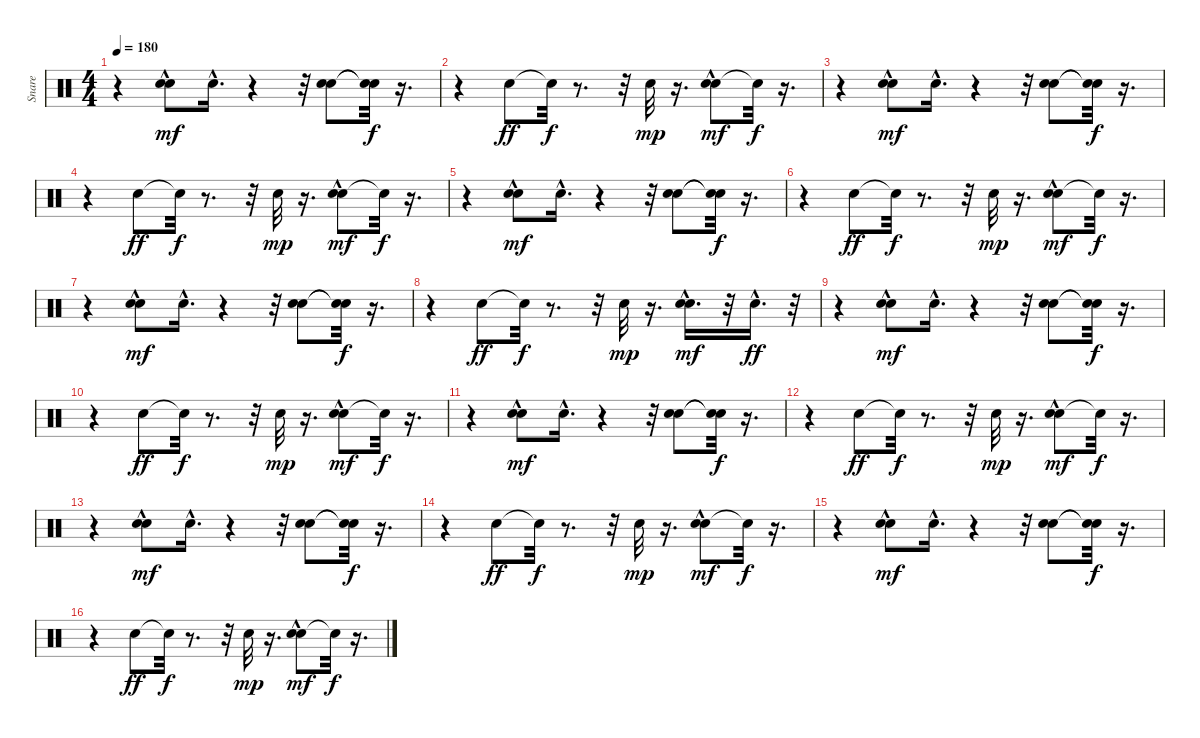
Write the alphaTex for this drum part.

\track ("Snare" "Snare") {instrument percussion}
\staff {score}
\articulation defaults
\ts (4 4)
\tempo 180
\clef neutral
\ks c
r.4{dy f} ("Snare (hit) 2" "Hand Clap (hit)"{hac}).8{dy mf} "Hand Clap (hit)"{hac}.16{d} r.4 r.32 ("Snare (hit) 2" "Hand Clap (hit)").8 ("Snare (hit)"{t} "Snare (hit)"{t}).32{dy f} r.16{d} |
r.4 "Snare (hit) 2".8{dy ff} "Snare (hit)"{t}.32{dy f} r.8{d} r.32 "Hand Clap (hit)".32{dy mp} r.16{d} ("Snare (hit) 2" "Hand Clap (hit)"{hac}).8{dy mf} "Snare (hit)"{t}.32{dy f} r.16{d} |
r.4 ("Snare (hit) 2" "Hand Clap (hit)"{hac}).8{dy mf} "Hand Clap (hit)"{hac}.16{d} r.4 r.32 ("Snare (hit) 2" "Hand Clap (hit)").8 ("Snare (hit)"{t} "Snare (hit)"{t}).32{dy f} r.16{d} |
r.4 "Snare (hit) 2".8{dy ff} "Snare (hit)"{t}.32{dy f} r.8{d} r.32 "Hand Clap (hit)".32{dy mp} r.16{d} ("Snare (hit) 2" "Hand Clap (hit)"{hac}).8{dy mf} "Snare (hit)"{t}.32{dy f} r.16{d} |
r.4 ("Snare (hit) 2" "Hand Clap (hit)"{hac}).8{dy mf} "Hand Clap (hit)"{hac}.16{d} r.4 r.32 ("Snare (hit) 2" "Hand Clap (hit)").8 ("Snare (hit)"{t} "Snare (hit)"{t}).32{dy f} r.16{d} |
r.4 "Snare (hit) 2".8{dy ff} "Snare (hit)"{t}.32{dy f} r.8{d} r.32 "Hand Clap (hit)".32{dy mp} r.16{d} ("Snare (hit) 2" "Hand Clap (hit)"{hac}).8{dy mf} "Snare (hit)"{t}.32{dy f} r.16{d} |
r.4 ("Snare (hit) 2" "Hand Clap (hit)"{hac}).8{dy mf} "Hand Clap (hit)"{hac}.16{d} r.4 r.32 ("Snare (hit) 2" "Hand Clap (hit)").8 ("Snare (hit)"{t} "Snare (hit)"{t}).32{dy f} r.16{d} |
r.4 "Snare (hit) 2".8{dy ff} "Snare (hit)"{t}.32{dy f} r.8{d} r.32 "Hand Clap (hit)".32{dy mp} r.16{d} ("Snare (hit) 2"{hac} "Hand Clap (hit)"{hac}).16{d dy mf} r.32 "Snare (hit) 2"{hac}.16{d dy ff} r.32 |
r.4 ("Snare (hit) 2" "Hand Clap (hit)"{hac}).8{dy mf} "Hand Clap (hit)"{hac}.16{d} r.4 r.32 ("Snare (hit) 2" "Hand Clap (hit)").8 ("Snare (hit)"{t} "Snare (hit)"{t}).32{dy f} r.16{d} |
r.4 "Snare (hit) 2".8{dy ff} "Snare (hit)"{t}.32{dy f} r.8{d} r.32 "Hand Clap (hit)".32{dy mp} r.16{d} ("Snare (hit) 2" "Hand Clap (hit)"{hac}).8{dy mf} "Snare (hit)"{t}.32{dy f} r.16{d} |
r.4 ("Snare (hit) 2" "Hand Clap (hit)"{hac}).8{dy mf} "Hand Clap (hit)"{hac}.16{d} r.4 r.32 ("Snare (hit) 2" "Hand Clap (hit)").8 ("Snare (hit)"{t} "Snare (hit)"{t}).32{dy f} r.16{d} |
r.4 "Snare (hit) 2".8{dy ff} "Snare (hit)"{t}.32{dy f} r.8{d} r.32 "Hand Clap (hit)".32{dy mp} r.16{d} ("Snare (hit) 2" "Hand Clap (hit)"{hac}).8{dy mf} "Snare (hit)"{t}.32{dy f} r.16{d} |
r.4 ("Snare (hit) 2" "Hand Clap (hit)"{hac}).8{dy mf} "Hand Clap (hit)"{hac}.16{d} r.4 r.32 ("Snare (hit) 2" "Hand Clap (hit)").8 ("Snare (hit)"{t} "Snare (hit)"{t}).32{dy f} r.16{d} |
r.4 "Snare (hit) 2".8{dy ff} "Snare (hit)"{t}.32{dy f} r.8{d} r.32 "Hand Clap (hit)".32{dy mp} r.16{d} ("Snare (hit) 2" "Hand Clap (hit)"{hac}).8{dy mf} "Snare (hit)"{t}.32{dy f} r.16{d} |
r.4 ("Snare (hit) 2" "Hand Clap (hit)"{hac}).8{dy mf} "Hand Clap (hit)"{hac}.16{d} r.4 r.32 ("Snare (hit) 2" "Hand Clap (hit)").8 ("Snare (hit)"{t} "Snare (hit)"{t}).32{dy f} r.16{d} |
r.4 "Snare (hit) 2".8{dy ff} "Snare (hit)"{t}.32{dy f} r.8{d} r.32 "Hand Clap (hit)".32{dy mp} r.16{d} ("Snare (hit) 2" "Hand Clap (hit)"{hac}).8{dy mf} "Snare (hit)"{t}.32{dy f} r.16{d}
